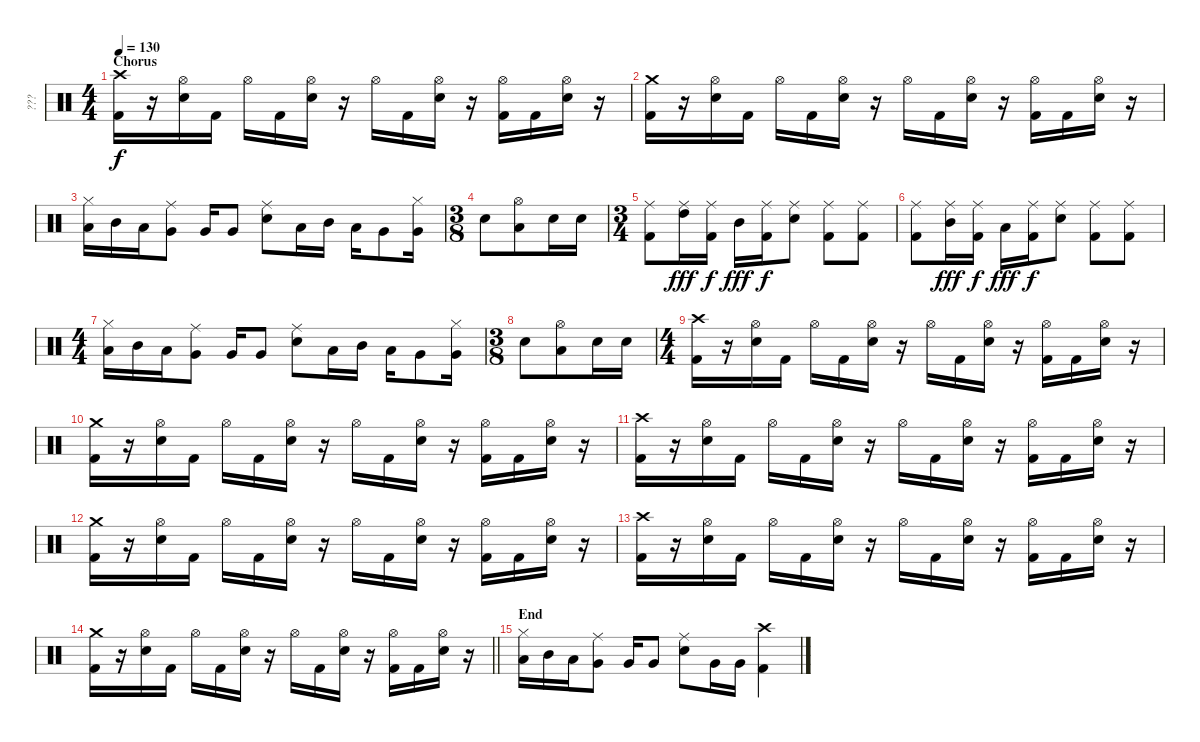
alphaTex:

\track ("???" "???") {instrument percussion}
\staff {score}
\articulation defaults
\ts (4 4)
\section ("" "Chorus")
\tempo 130
\clef neutral
\ks c
("Crash high (hit)" "Kick (hit) 2").16{dy f} r.16 ("Hi-Hat (open)" "Electric Snare (hit)").16 "Kick (hit) 2".16 "Hi-Hat (open)".16 "Kick (hit) 2".16 ("Hi-Hat (open)" "Electric Snare (hit)").16 r.16 "Hi-Hat (open)".16 "Kick (hit) 2".16 ("Hi-Hat (open)" "Electric Snare (hit)").16 r.16 ("Hi-Hat (open)" "Kick (hit) 2").16 "Kick (hit) 2".16 ("Hi-Hat (open)" "Electric Snare (hit)").16 r.16 |
("Crash medium (hit)" "Kick (hit) 2").16 r.16 ("Hi-Hat (open)" "Electric Snare (hit)").16 "Kick (hit) 2".16 "Hi-Hat (open)".16 "Kick (hit) 2".16 ("Hi-Hat (open)" "Electric Snare (hit)").16 r.16 "Hi-Hat (open)".16 "Kick (hit) 2".16 ("Hi-Hat (open)" "Electric Snare (hit)").16 r.16 ("Hi-Hat (open)" "Kick (hit) 2").16 "Kick (hit) 2".16 ("Hi-Hat (open)" "Electric Snare (hit)").16 r.16 |
("Hi-Hat (closed)" "Low Tom (hit)").16 "Mid Tom (hit)".16 "Low Tom (hit)".16 ("Ride (middle)" "Very Low Tom (hit)").8 "Very Low Tom (hit)".16 "Very Low Tom (hit)".8 ("Ride (middle)" "Electric Snare (hit)").8 "Low Tom (hit)".16 "Mid Tom (hit)".16 "Low Tom (hit)".16 "Very Low Tom (hit)".8 ("Hi-Hat (closed)" "Very Low Tom (hit)").16 |
\ts (3 8)
"Electric Snare (hit)".8 ("Hi-Hat (open)" "Low Floor Tom (hit)").8 "Electric Snare (hit)".16 "Electric Snare (hit)".16 |
\ts (3 4)
("Ride (middle)" "Kick (hit) 2").8 ("Ride (middle)" "High Tom (hit)").16{dy fff} ("Ride (middle)" "Kick (hit) 2").16{dy f} "Mid Tom (hit)".16{dy fff} ("Ride (middle)" "Kick (hit) 2").16{dy f} ("Ride (middle)" "Electric Snare (hit)").8 ("Ride (middle)" "Kick (hit) 2").8 ("Ride (middle)" "Kick (hit) 2").8 |
("Ride (middle)" "Kick (hit) 2").8 ("Ride (middle)" "Mid Tom (hit)").16{dy fff} ("Ride (middle)" "Kick (hit) 2").16{dy f} "Low Tom (hit)".16{dy fff} ("Ride (middle)" "Kick (hit) 2").16{dy f} ("Ride (middle)" "Electric Snare (hit)").8 ("Ride (middle)" "Kick (hit) 2").8 ("Ride (middle)" "Kick (hit) 2").8 |
\ts (4 4)
("Hi-Hat (closed)" "Low Tom (hit)").16 "Mid Tom (hit)".16 "Low Tom (hit)".16 ("Ride (middle)" "Very Low Tom (hit)").8 "Very Low Tom (hit)".16 "Very Low Tom (hit)".8 ("Ride (middle)" "Electric Snare (hit)").8 "Low Tom (hit)".16 "Mid Tom (hit)".16 "Low Tom (hit)".16 "Very Low Tom (hit)".8 ("Hi-Hat (closed)" "Very Low Tom (hit)").16 |
\ts (3 8)
"Electric Snare (hit)".8 ("Hi-Hat (open)" "Low Floor Tom (hit)").8 "Electric Snare (hit)".16 "Electric Snare (hit)".16 |
\ts (4 4)
("Crash high (hit)" "Kick (hit) 2").16 r.16 ("Hi-Hat (open)" "Electric Snare (hit)").16 "Kick (hit) 2".16 "Hi-Hat (open)".16 "Kick (hit) 2".16 ("Hi-Hat (open)" "Electric Snare (hit)").16 r.16 "Hi-Hat (open)".16 "Kick (hit) 2".16 ("Hi-Hat (open)" "Electric Snare (hit)").16 r.16 ("Hi-Hat (open)" "Kick (hit) 2").16 "Kick (hit) 2".16 ("Hi-Hat (open)" "Electric Snare (hit)").16 r.16 |
("Crash medium (hit)" "Kick (hit) 2").16 r.16 ("Hi-Hat (open)" "Electric Snare (hit)").16 "Kick (hit) 2".16 "Hi-Hat (open)".16 "Kick (hit) 2".16 ("Hi-Hat (open)" "Electric Snare (hit)").16 r.16 "Hi-Hat (open)".16 "Kick (hit) 2".16 ("Hi-Hat (open)" "Electric Snare (hit)").16 r.16 ("Hi-Hat (open)" "Kick (hit) 2").16 "Kick (hit) 2".16 ("Hi-Hat (open)" "Electric Snare (hit)").16 r.16 |
("Crash high (hit)" "Kick (hit) 2").16 r.16 ("Hi-Hat (open)" "Electric Snare (hit)").16 "Kick (hit) 2".16 "Hi-Hat (open)".16 "Kick (hit) 2".16 ("Hi-Hat (open)" "Electric Snare (hit)").16 r.16 "Hi-Hat (open)".16 "Kick (hit) 2".16 ("Hi-Hat (open)" "Electric Snare (hit)").16 r.16 ("Hi-Hat (open)" "Kick (hit) 2").16 "Kick (hit) 2".16 ("Hi-Hat (open)" "Electric Snare (hit)").16 r.16 |
("Crash medium (hit)" "Kick (hit) 2").16 r.16 ("Hi-Hat (open)" "Electric Snare (hit)").16 "Kick (hit) 2".16 "Hi-Hat (open)".16 "Kick (hit) 2".16 ("Hi-Hat (open)" "Electric Snare (hit)").16 r.16 "Hi-Hat (open)".16 "Kick (hit) 2".16 ("Hi-Hat (open)" "Electric Snare (hit)").16 r.16 ("Hi-Hat (open)" "Kick (hit) 2").16 "Kick (hit) 2".16 ("Hi-Hat (open)" "Electric Snare (hit)").16 r.16 |
("Crash high (hit)" "Kick (hit) 2").16 r.16 ("Hi-Hat (open)" "Electric Snare (hit)").16 "Kick (hit) 2".16 "Hi-Hat (open)".16 "Kick (hit) 2".16 ("Hi-Hat (open)" "Electric Snare (hit)").16 r.16 "Hi-Hat (open)".16 "Kick (hit) 2".16 ("Hi-Hat (open)" "Electric Snare (hit)").16 r.16 ("Hi-Hat (open)" "Kick (hit) 2").16 "Kick (hit) 2".16 ("Hi-Hat (open)" "Electric Snare (hit)").16 r.16 |
\barLineRight lightlight
("Crash medium (hit)" "Kick (hit) 2").16 r.16 ("Hi-Hat (open)" "Electric Snare (hit)").16 "Kick (hit) 2".16 "Hi-Hat (open)".16 "Kick (hit) 2".16 ("Hi-Hat (open)" "Electric Snare (hit)").16 r.16 "Hi-Hat (open)".16 "Kick (hit) 2".16 ("Hi-Hat (open)" "Electric Snare (hit)").16 r.16 ("Hi-Hat (open)" "Kick (hit) 2").16 "Kick (hit) 2".16 ("Hi-Hat (open)" "Electric Snare (hit)").16 r.16 |
\section ("" "End")
("Hi-Hat (closed)" "Low Tom (hit)").16 "Mid Tom (hit)".16 "Low Tom (hit)".16 ("Ride (middle)" "Very Low Tom (hit)").8 "Very Low Tom (hit)".16 "Very Low Tom (hit)".8 ("Ride (middle)" "Electric Snare (hit)").8 "Very Low Tom (hit)".16 "Very Low Tom (hit)".16 ("Crash high (hit)" "Kick (hit) 2").4
